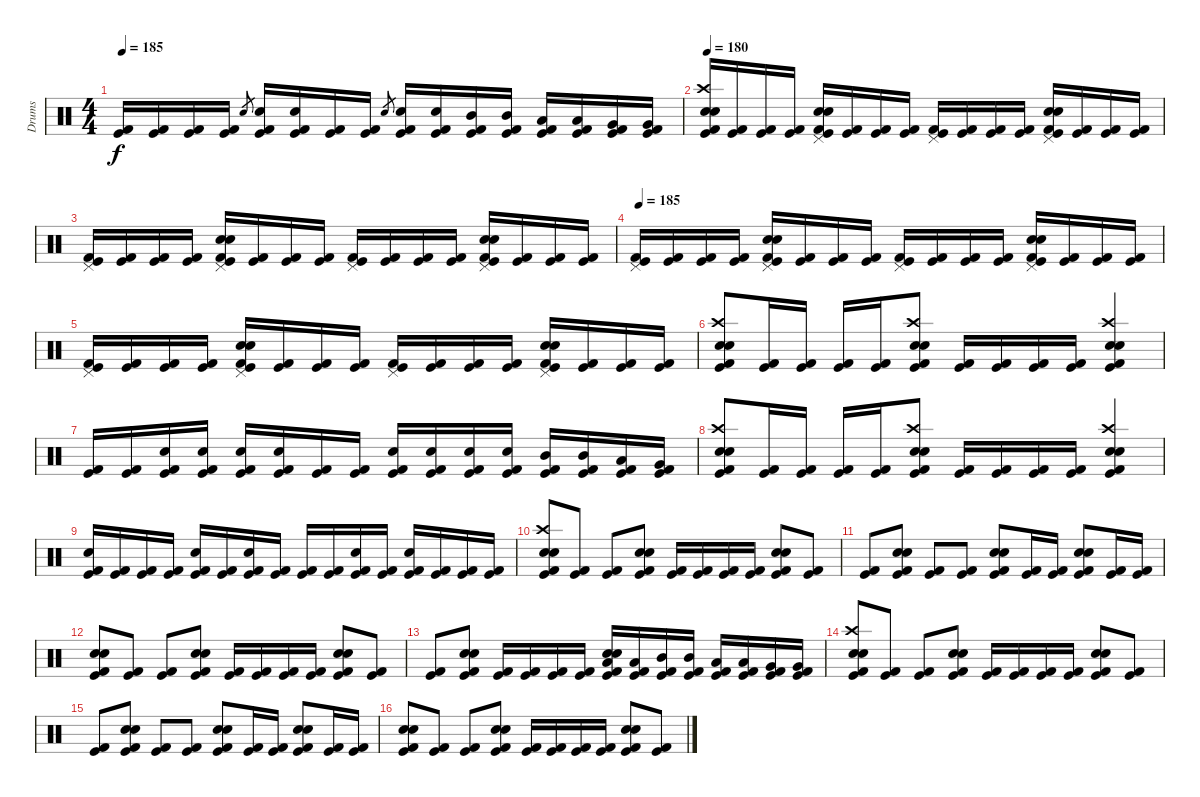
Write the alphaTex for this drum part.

\track ("Drums" "Drums") {instrument percussion}
\staff {score}
\articulation defaults
\ts (4 4)
\tempo 185
\clef neutral
\ks c
("Kick (hit) 2" "Kick (hit)").16{dy f} ("Kick (hit) 2" "Kick (hit)").16 ("Kick (hit) 2" "Kick (hit)").16 ("Kick (hit) 2" "Kick (hit)").16 "Electric Snare (hit)".8{gr} ("Electric Snare (hit)" "Kick (hit) 2" "Kick (hit)").16 ("Electric Snare (hit)" "Kick (hit) 2" "Kick (hit)").16 ("Kick (hit) 2" "Kick (hit)").16 ("Kick (hit) 2" "Kick (hit)").16 "Electric Snare (hit)".8{gr} ("Electric Snare (hit)" "Kick (hit) 2" "Kick (hit)").16 ("Electric Snare (hit)" "Kick (hit) 2" "Kick (hit)").16 ("Mid Tom (hit)" "Kick (hit) 2" "Kick (hit)").16 ("Mid Tom (hit)" "Kick (hit) 2" "Kick (hit)").16 ("Low Tom (hit)" "Kick (hit) 2" "Kick (hit)").16 ("Low Tom (hit)" "Kick (hit) 2" "Kick (hit)").16 ("Very Low Tom (hit)" "Kick (hit) 2" "Kick (hit)").16 ("Very Low Tom (hit)" "Kick (hit) 2" "Kick (hit)").16 |
\tempo 180
("Crash high (hit)" "Electric Snare (hit)" "Snare (hit) 2" "Kick (hit) 2" "Kick (hit)").16 ("Kick (hit) 2" "Kick (hit)").16 ("Kick (hit) 2" "Kick (hit)").16 ("Kick (hit) 2" "Kick (hit)").16 ("Pedal Hi-Hat (hit)" "Electric Snare (hit)" "Snare (hit) 2" "Kick (hit) 2" "Kick (hit)").16 ("Kick (hit) 2" "Kick (hit)").16 ("Kick (hit) 2" "Kick (hit)").16 ("Kick (hit) 2" "Kick (hit)").16 ("Pedal Hi-Hat (hit)" "Kick (hit) 2" "Kick (hit)").16 ("Kick (hit) 2" "Kick (hit)").16 ("Kick (hit) 2" "Kick (hit)").16 ("Kick (hit) 2" "Kick (hit)").16 ("Pedal Hi-Hat (hit)" "Electric Snare (hit)" "Snare (hit) 2" "Kick (hit) 2" "Kick (hit)").16 ("Kick (hit) 2" "Kick (hit)").16 ("Kick (hit) 2" "Kick (hit)").16 ("Kick (hit) 2" "Kick (hit)").16 |
("Pedal Hi-Hat (hit)" "Kick (hit) 2" "Kick (hit)").16 ("Kick (hit) 2" "Kick (hit)").16 ("Kick (hit) 2" "Kick (hit)").16 ("Kick (hit) 2" "Kick (hit)").16 ("Pedal Hi-Hat (hit)" "Electric Snare (hit)" "Snare (hit) 2" "Kick (hit) 2" "Kick (hit)").16 ("Kick (hit) 2" "Kick (hit)").16 ("Kick (hit) 2" "Kick (hit)").16 ("Kick (hit) 2" "Kick (hit)").16 ("Pedal Hi-Hat (hit)" "Kick (hit) 2" "Kick (hit)").16 ("Kick (hit) 2" "Kick (hit)").16 ("Kick (hit) 2" "Kick (hit)").16 ("Kick (hit) 2" "Kick (hit)").16 ("Pedal Hi-Hat (hit)" "Electric Snare (hit)" "Snare (hit) 2" "Kick (hit) 2" "Kick (hit)").16 ("Kick (hit) 2" "Kick (hit)").16 ("Kick (hit) 2" "Kick (hit)").16 ("Kick (hit) 2" "Kick (hit)").16 |
\tempo 185
("Pedal Hi-Hat (hit)" "Kick (hit) 2" "Kick (hit)").16 ("Kick (hit) 2" "Kick (hit)").16 ("Kick (hit) 2" "Kick (hit)").16 ("Kick (hit) 2" "Kick (hit)").16 ("Pedal Hi-Hat (hit)" "Electric Snare (hit)" "Snare (hit) 2" "Kick (hit) 2" "Kick (hit)").16 ("Kick (hit) 2" "Kick (hit)").16 ("Kick (hit) 2" "Kick (hit)").16 ("Kick (hit) 2" "Kick (hit)").16 ("Pedal Hi-Hat (hit)" "Kick (hit) 2" "Kick (hit)").16 ("Kick (hit) 2" "Kick (hit)").16 ("Kick (hit) 2" "Kick (hit)").16 ("Kick (hit) 2" "Kick (hit)").16 ("Pedal Hi-Hat (hit)" "Electric Snare (hit)" "Snare (hit) 2" "Kick (hit) 2" "Kick (hit)").16 ("Kick (hit) 2" "Kick (hit)").16 ("Kick (hit) 2" "Kick (hit)").16 ("Kick (hit) 2" "Kick (hit)").16 |
("Pedal Hi-Hat (hit)" "Kick (hit) 2" "Kick (hit)").16 ("Kick (hit) 2" "Kick (hit)").16 ("Kick (hit) 2" "Kick (hit)").16 ("Kick (hit) 2" "Kick (hit)").16 ("Pedal Hi-Hat (hit)" "Electric Snare (hit)" "Snare (hit) 2" "Kick (hit) 2" "Kick (hit)").16 ("Kick (hit) 2" "Kick (hit)").16 ("Kick (hit) 2" "Kick (hit)").16 ("Kick (hit) 2" "Kick (hit)").16 ("Pedal Hi-Hat (hit)" "Kick (hit) 2" "Kick (hit)").16 ("Kick (hit) 2" "Kick (hit)").16 ("Kick (hit) 2" "Kick (hit)").16 ("Kick (hit) 2" "Kick (hit)").16 ("Pedal Hi-Hat (hit)" "Electric Snare (hit)" "Snare (hit) 2" "Kick (hit) 2" "Kick (hit)").16 ("Kick (hit) 2" "Kick (hit)").16 ("Kick (hit) 2" "Kick (hit)").16 ("Kick (hit) 2" "Kick (hit)").16 |
("Crash high (hit)" "Electric Snare (hit)" "Snare (hit) 2" "Kick (hit) 2" "Kick (hit)").8 ("Kick (hit) 2" "Kick (hit)").16 ("Kick (hit) 2" "Kick (hit)").16 ("Kick (hit) 2" "Kick (hit)").16 ("Kick (hit) 2" "Kick (hit)").16 ("Crash high (hit)" "Electric Snare (hit)" "Snare (hit) 2" "Kick (hit) 2" "Kick (hit)").8 ("Kick (hit) 2" "Kick (hit)").16 ("Kick (hit) 2" "Kick (hit)").16 ("Kick (hit) 2" "Kick (hit)").16 ("Kick (hit) 2" "Kick (hit)").16 ("Crash high (hit)" "Electric Snare (hit)" "Snare (hit) 2" "Kick (hit) 2" "Kick (hit)").4 |
("Kick (hit) 2" "Kick (hit)").16 ("Kick (hit) 2" "Kick (hit)").16 ("Electric Snare (hit)" "Kick (hit) 2" "Kick (hit)").16 ("Electric Snare (hit)" "Kick (hit) 2" "Kick (hit)").16 ("Electric Snare (hit)" "Kick (hit) 2" "Kick (hit)").16 ("Electric Snare (hit)" "Kick (hit) 2" "Kick (hit)").16 ("Kick (hit) 2" "Kick (hit)").16 ("Kick (hit) 2" "Kick (hit)").16 ("Electric Snare (hit)" "Kick (hit) 2" "Kick (hit)").16 ("Electric Snare (hit)" "Kick (hit) 2" "Kick (hit)").16 ("Electric Snare (hit)" "Kick (hit) 2" "Kick (hit)").16 ("Electric Snare (hit)" "Kick (hit) 2" "Kick (hit)").16 ("Mid Tom (hit)" "Kick (hit) 2" "Kick (hit)").16 ("Mid Tom (hit)" "Kick (hit) 2" "Kick (hit)").16 ("Low Tom (hit)" "Kick (hit) 2" "Kick (hit)").16 ("Very Low Tom (hit)" "Kick (hit) 2" "Kick (hit)").16 |
("Crash high (hit)" "Electric Snare (hit)" "Snare (hit) 2" "Kick (hit) 2" "Kick (hit)").8 ("Kick (hit) 2" "Kick (hit)").16 ("Kick (hit) 2" "Kick (hit)").16 ("Kick (hit) 2" "Kick (hit)").16 ("Kick (hit) 2" "Kick (hit)").16 ("Crash high (hit)" "Electric Snare (hit)" "Snare (hit) 2" "Kick (hit) 2" "Kick (hit)").8 ("Kick (hit) 2" "Kick (hit)").16 ("Kick (hit) 2" "Kick (hit)").16 ("Kick (hit) 2" "Kick (hit)").16 ("Kick (hit) 2" "Kick (hit)").16 ("Crash high (hit)" "Electric Snare (hit)" "Snare (hit) 2" "Kick (hit) 2" "Kick (hit)").4 |
("Electric Snare (hit)" "Kick (hit) 2" "Kick (hit)").16 ("Kick (hit) 2" "Kick (hit)").16 ("Kick (hit) 2" "Kick (hit)").16 ("Kick (hit) 2" "Kick (hit)").16 ("Snare (hit) 2" "Kick (hit) 2" "Kick (hit)").16 ("Kick (hit) 2" "Kick (hit)").16 ("Snare (hit) 2" "Kick (hit) 2" "Kick (hit)").16 ("Kick (hit) 2" "Kick (hit)").16 ("Kick (hit) 2" "Kick (hit)").16 ("Kick (hit) 2" "Kick (hit)").16 ("Electric Snare (hit)" "Kick (hit) 2" "Kick (hit)").16 ("Kick (hit) 2" "Kick (hit)").16 ("Snare (hit) 2" "Kick (hit) 2" "Kick (hit)").16 ("Kick (hit) 2" "Kick (hit)").16 ("Kick (hit) 2" "Kick (hit)").16 ("Kick (hit) 2" "Kick (hit)").16 |
("Crash high (hit)" "Electric Snare (hit)" "Snare (hit) 2" "Kick (hit) 2" "Kick (hit)").8 ("Kick (hit) 2" "Kick (hit)").8 ("Kick (hit) 2" "Kick (hit)").8 ("Electric Snare (hit)" "Snare (hit) 2" "Kick (hit) 2" "Kick (hit)").8 ("Kick (hit) 2" "Kick (hit)").16 ("Kick (hit) 2" "Kick (hit)").16 ("Kick (hit) 2" "Kick (hit)").16 ("Kick (hit) 2" "Kick (hit)").16 ("Electric Snare (hit)" "Snare (hit) 2" "Kick (hit) 2" "Kick (hit)").8 ("Kick (hit) 2" "Kick (hit)").8 |
("Kick (hit) 2" "Kick (hit)").8 ("Electric Snare (hit)" "Snare (hit) 2" "Kick (hit) 2" "Kick (hit)").8 ("Kick (hit) 2" "Kick (hit)").8 ("Kick (hit) 2" "Kick (hit)").8 ("Electric Snare (hit)" "Snare (hit) 2" "Kick (hit) 2" "Kick (hit)").8 ("Kick (hit) 2" "Kick (hit)").16 ("Kick (hit) 2" "Kick (hit)").16 ("Electric Snare (hit)" "Snare (hit) 2" "Kick (hit) 2" "Kick (hit)").8 ("Kick (hit) 2" "Kick (hit)").16 ("Kick (hit) 2" "Kick (hit)").16 |
("Electric Snare (hit)" "Snare (hit) 2" "Kick (hit) 2" "Kick (hit)").8 ("Kick (hit) 2" "Kick (hit)").8 ("Kick (hit) 2" "Kick (hit)").8 ("Electric Snare (hit)" "Snare (hit) 2" "Kick (hit) 2" "Kick (hit)").8 ("Kick (hit) 2" "Kick (hit)").16 ("Kick (hit) 2" "Kick (hit)").16 ("Kick (hit) 2" "Kick (hit)").16 ("Kick (hit) 2" "Kick (hit)").16 ("Electric Snare (hit)" "Snare (hit) 2" "Kick (hit) 2" "Kick (hit)").8 ("Kick (hit) 2" "Kick (hit)").8 |
("Kick (hit) 2" "Kick (hit)").8 ("Electric Snare (hit)" "Snare (hit) 2" "Kick (hit) 2" "Kick (hit)").8 ("Kick (hit) 2" "Kick (hit)").16 ("Kick (hit) 2" "Kick (hit)").16 ("Kick (hit) 2" "Kick (hit)").16 ("Kick (hit) 2" "Kick (hit)").16 ("Electric Snare (hit)" "Snare (hit) 2" "Low Tom (hit)" "Kick (hit) 2" "Kick (hit)").16 ("Low Tom (hit)" "Kick (hit) 2" "Kick (hit)").16 ("Mid Tom (hit)" "Kick (hit) 2" "Kick (hit)").16 ("Mid Tom (hit)" "Kick (hit) 2" "Kick (hit)").16 ("Low Tom (hit)" "Kick (hit) 2" "Kick (hit)").16 ("Low Tom (hit)" "Kick (hit) 2" "Kick (hit)").16 ("Very Low Tom (hit)" "Kick (hit) 2" "Kick (hit)").16 ("Very Low Tom (hit)" "Kick (hit) 2" "Kick (hit)").16 |
("Crash high (hit)" "Electric Snare (hit)" "Snare (hit) 2" "Kick (hit) 2" "Kick (hit)").8 ("Kick (hit) 2" "Kick (hit)").8 ("Kick (hit) 2" "Kick (hit)").8 ("Electric Snare (hit)" "Snare (hit) 2" "Kick (hit) 2" "Kick (hit)").8 ("Kick (hit) 2" "Kick (hit)").16 ("Kick (hit) 2" "Kick (hit)").16 ("Kick (hit) 2" "Kick (hit)").16 ("Kick (hit) 2" "Kick (hit)").16 ("Electric Snare (hit)" "Snare (hit) 2" "Kick (hit) 2" "Kick (hit)").8 ("Kick (hit) 2" "Kick (hit)").8 |
("Kick (hit) 2" "Kick (hit)").8 ("Electric Snare (hit)" "Snare (hit) 2" "Kick (hit) 2" "Kick (hit)").8 ("Kick (hit) 2" "Kick (hit)").8 ("Kick (hit) 2" "Kick (hit)").8 ("Electric Snare (hit)" "Snare (hit) 2" "Kick (hit) 2" "Kick (hit)").8 ("Kick (hit) 2" "Kick (hit)").16 ("Kick (hit) 2" "Kick (hit)").16 ("Electric Snare (hit)" "Snare (hit) 2" "Kick (hit) 2" "Kick (hit)").8 ("Kick (hit) 2" "Kick (hit)").16 ("Kick (hit) 2" "Kick (hit)").16 |
("Electric Snare (hit)" "Snare (hit) 2" "Kick (hit) 2" "Kick (hit)").8 ("Kick (hit) 2" "Kick (hit)").8 ("Kick (hit) 2" "Kick (hit)").8 ("Electric Snare (hit)" "Snare (hit) 2" "Kick (hit) 2" "Kick (hit)").8 ("Kick (hit) 2" "Kick (hit)").16 ("Kick (hit) 2" "Kick (hit)").16 ("Kick (hit) 2" "Kick (hit)").16 ("Kick (hit) 2" "Kick (hit)").16 ("Electric Snare (hit)" "Snare (hit) 2" "Kick (hit) 2" "Kick (hit)").8 ("Kick (hit) 2" "Kick (hit)").8
